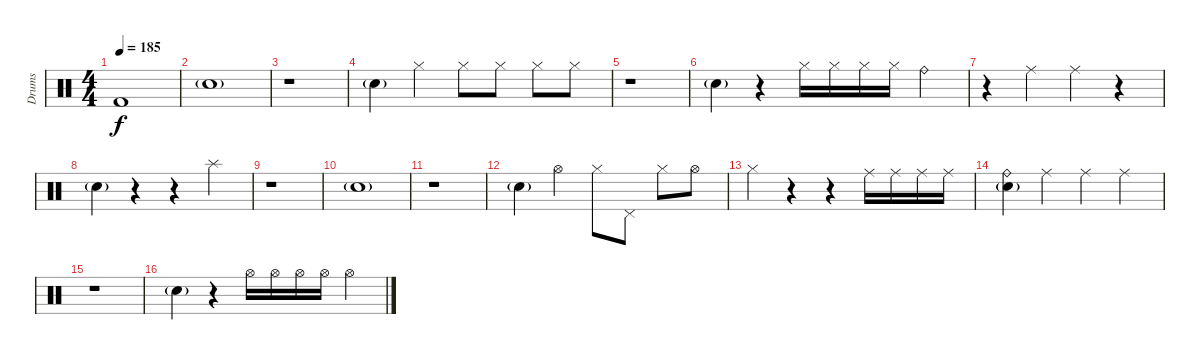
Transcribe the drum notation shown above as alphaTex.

\track ("Drums" "Drums") {instrument percussion}
\staff {score}
\articulation defaults
\ts (4 4)
\tempo 185
\clef neutral
\ks c "Kick (hit) 2".1{dy f}
|
"Snare (hit) 2"{g}.1 |
r.1 |
"Snare (hit) 2"{g}.4 "Hi-Hat (closed)".4 "Hi-Hat (closed)".8 "Hi-Hat (closed)".8 "Hi-Hat (closed)".8 "Hi-Hat (closed)".8 |
r.1 |
"Snare (hit) 2"{g}.4 r.4 "Hi-Hat (closed)".16 "Hi-Hat (closed)".16 "Hi-Hat (closed)".16 "Hi-Hat (closed)".16 "Ride (bell)".4 |
r.4 "Ride (middle)".4 "Ride (middle)".4 r.4 |
"Snare (hit) 2"{g}.4 r.4 r.4 "Splash (hit)".4 |
r.1 |
"Snare (hit) 2"{g}.1 |
r.1 |
"Snare (hit) 2"{g}.4 "Hi-Hat (open)".4 "Hi-Hat (closed)".8 "Pedal Hi-Hat (hit)".8 "Hi-Hat (closed)".8 "Hi-Hat (open)".8 |
"Hi-Hat (closed)".4 r.4 r.4 "Ride (middle)".16 "Ride (middle)".16 "Ride (middle)".16 "Ride (middle)".16 |
("Ride (bell)" "Snare (hit) 2"{g}).4 "Ride (middle)".4 "Ride (middle)".4 "Ride (middle)".4 |
r.1 |
"Snare (hit) 2"{g}.4 r.4 "Hi-Hat (open)".16 "Hi-Hat (open)".16 "Hi-Hat (open)".16 "Hi-Hat (open)".16 "Hi-Hat (open)".4
